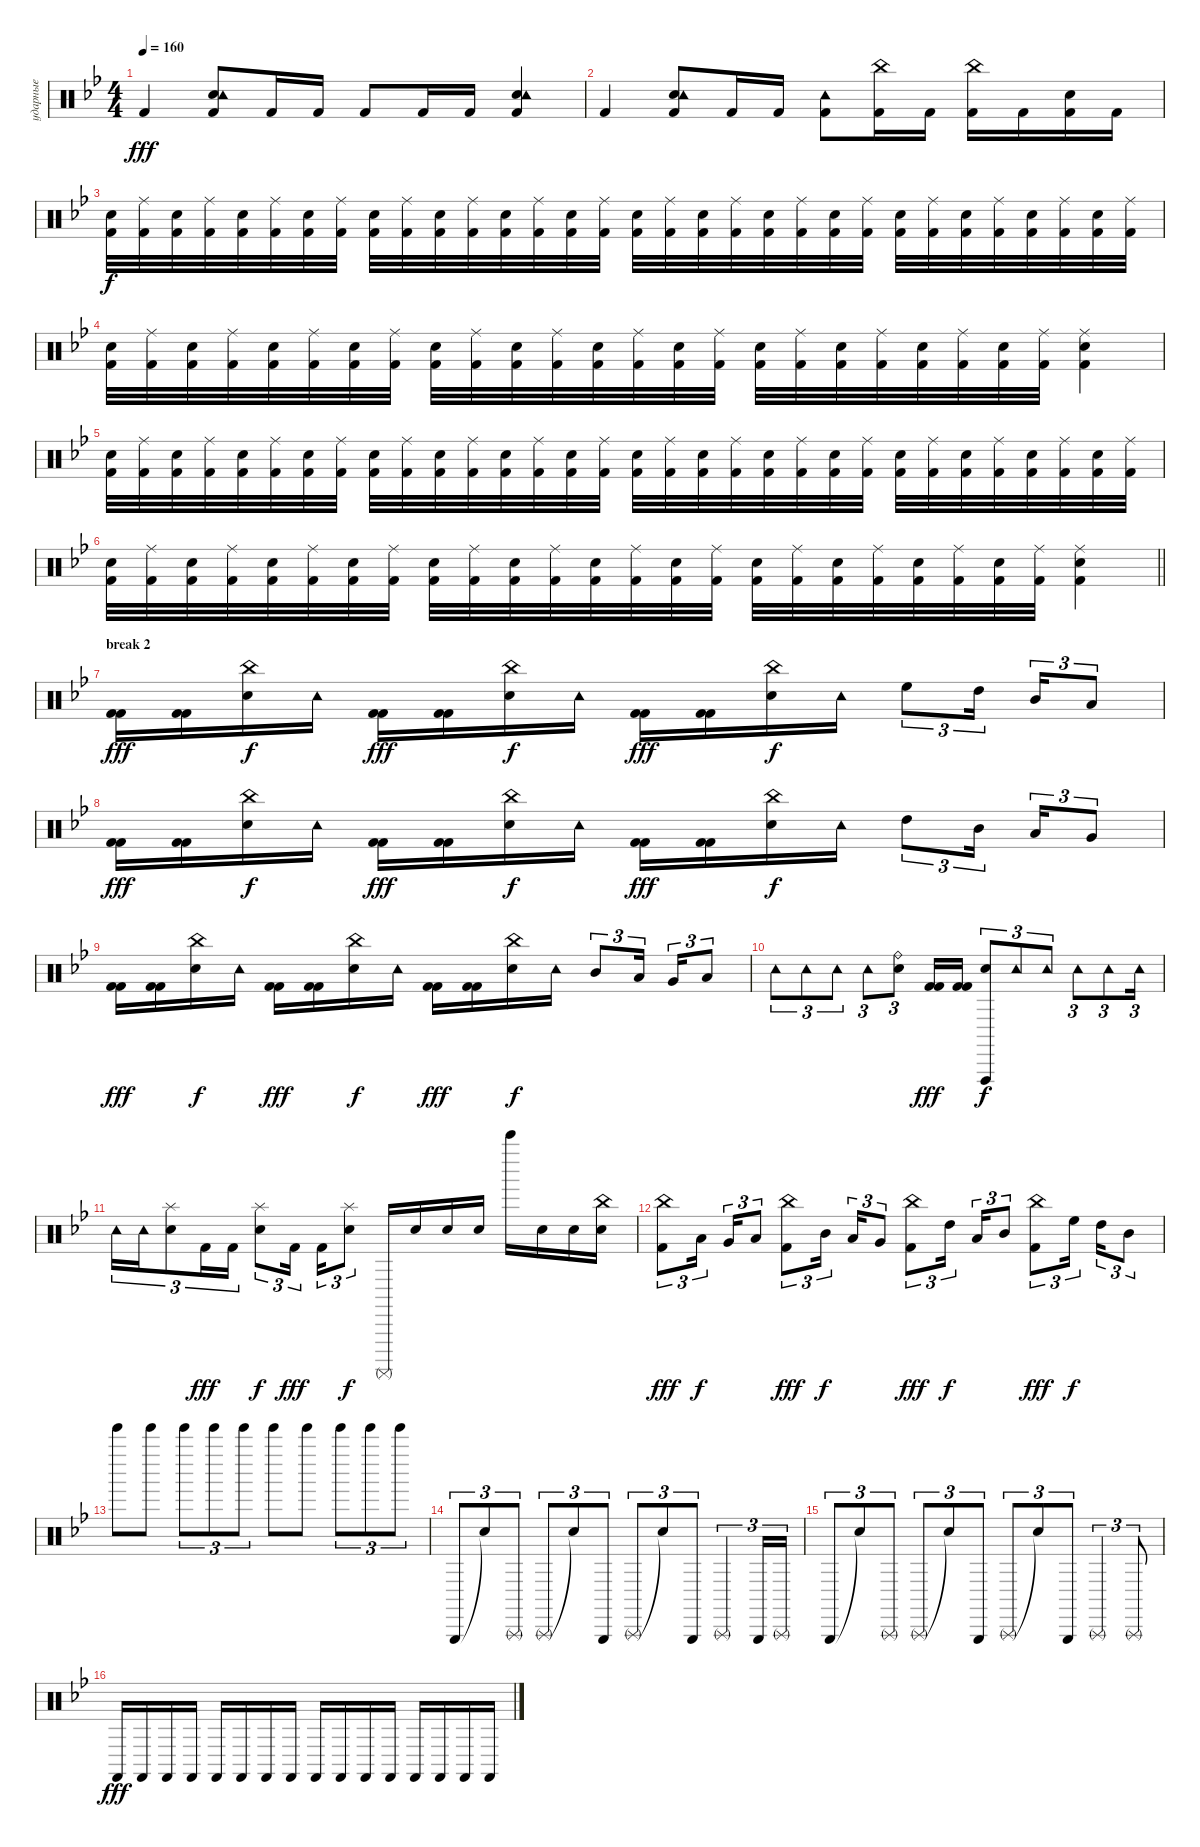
\track ("ударные" "ударные") {instrument percussion}
\staff {score}
\articulation defaults
\ts (4 4)
\tempo 160
\clef neutral
\ks gminor "Kick (hit) 2".4{dy fff}
("Electric Snare (hit)" "Tambourine (hit)" "Kick (hit) 2").8 "Kick (hit) 2".16 "Kick (hit) 2".16 "Kick (hit) 2".8 "Kick (hit) 2".16 "Kick (hit) 2".16 ("Electric Snare (hit)" "Tambourine (hit)" "Kick (hit) 2").4 |
"Kick (hit) 2".4 ("Electric Snare (hit)" "Tambourine (hit)" "Kick (hit) 2").8 "Kick (hit) 2".16 "Kick (hit) 2".16 ("Tambourine (hit)" "Kick (hit) 2").8 ("China (hit)" "Kick (hit) 2").16 "Kick (hit) 2".16 ("China (hit)" "Kick (hit) 2").16 "Kick (hit) 2".16 ("Electric Snare (hit)" "Kick (hit) 2").16 "Kick (hit) 2".16 |
("Kick (hit) 2" "Electric Snare (hit)").32{dy f} ("Kick (hit) 2" "Ride (middle)").32 ("Kick (hit) 2" "Electric Snare (hit)").32 ("Kick (hit) 2" "Ride (middle)").32 ("Kick (hit) 2" "Electric Snare (hit)").32 ("Kick (hit) 2" "Ride (middle)").32 ("Kick (hit) 2" "Electric Snare (hit)").32 ("Kick (hit) 2" "Ride (middle)").32 ("Kick (hit) 2" "Electric Snare (hit)").32 ("Kick (hit) 2" "Ride (middle)").32 ("Kick (hit) 2" "Electric Snare (hit)").32 ("Kick (hit) 2" "Ride (middle)").32 ("Kick (hit) 2" "Electric Snare (hit)").32 ("Kick (hit) 2" "Ride (middle)").32 ("Kick (hit) 2" "Electric Snare (hit)").32 ("Kick (hit) 2" "Ride (middle)").32 ("Kick (hit) 2" "Electric Snare (hit)").32 ("Kick (hit) 2" "Ride (middle)").32 ("Kick (hit) 2" "Electric Snare (hit)").32 ("Kick (hit) 2" "Ride (middle)").32 ("Kick (hit) 2" "Electric Snare (hit)").32 ("Kick (hit) 2" "Ride (middle)").32 ("Kick (hit) 2" "Electric Snare (hit)").32 ("Kick (hit) 2" "Ride (middle)").32 ("Kick (hit) 2" "Electric Snare (hit)").32 ("Kick (hit) 2" "Ride (middle)").32 ("Kick (hit) 2" "Electric Snare (hit)").32 ("Kick (hit) 2" "Ride (middle)").32 ("Kick (hit) 2" "Electric Snare (hit)").32 ("Kick (hit) 2" "Ride (middle)").32 ("Kick (hit) 2" "Electric Snare (hit)").32 ("Kick (hit) 2" "Ride (middle)").32 |
("Kick (hit) 2" "Electric Snare (hit)").32 ("Kick (hit) 2" "Ride (middle)").32 ("Kick (hit) 2" "Electric Snare (hit)").32 ("Kick (hit) 2" "Ride (middle)").32 ("Kick (hit) 2" "Electric Snare (hit)").32 ("Kick (hit) 2" "Ride (middle)").32 ("Kick (hit) 2" "Electric Snare (hit)").32 ("Kick (hit) 2" "Ride (middle)").32 ("Kick (hit) 2" "Electric Snare (hit)").32 ("Kick (hit) 2" "Ride (middle)").32 ("Kick (hit) 2" "Electric Snare (hit)").32 ("Kick (hit) 2" "Ride (middle)").32 ("Kick (hit) 2" "Electric Snare (hit)").32 ("Kick (hit) 2" "Ride (middle)").32 ("Kick (hit) 2" "Electric Snare (hit)").32 ("Kick (hit) 2" "Ride (middle)").32 ("Kick (hit) 2" "Electric Snare (hit)").32 ("Kick (hit) 2" "Ride (middle)").32 ("Kick (hit) 2" "Electric Snare (hit)").32 ("Kick (hit) 2" "Ride (middle)").32 ("Kick (hit) 2" "Electric Snare (hit)").32 ("Kick (hit) 2" "Ride (middle)").32 ("Kick (hit) 2" "Electric Snare (hit)").32 ("Kick (hit) 2" "Ride (middle)").32 ("Kick (hit) 2" "Electric Snare (hit)" "Ride (middle)").4 |
("Kick (hit) 2" "Electric Snare (hit)").32 ("Kick (hit) 2" "Ride (middle)").32 ("Kick (hit) 2" "Electric Snare (hit)").32 ("Kick (hit) 2" "Ride (middle)").32 ("Kick (hit) 2" "Electric Snare (hit)").32 ("Kick (hit) 2" "Ride (middle)").32 ("Kick (hit) 2" "Electric Snare (hit)").32 ("Kick (hit) 2" "Ride (middle)").32 ("Kick (hit) 2" "Electric Snare (hit)").32 ("Kick (hit) 2" "Ride (middle)").32 ("Kick (hit) 2" "Electric Snare (hit)").32 ("Kick (hit) 2" "Ride (middle)").32 ("Kick (hit) 2" "Electric Snare (hit)").32 ("Kick (hit) 2" "Ride (middle)").32 ("Kick (hit) 2" "Electric Snare (hit)").32 ("Kick (hit) 2" "Ride (middle)").32 ("Kick (hit) 2" "Electric Snare (hit)").32 ("Kick (hit) 2" "Ride (middle)").32 ("Kick (hit) 2" "Electric Snare (hit)").32 ("Kick (hit) 2" "Ride (middle)").32 ("Kick (hit) 2" "Electric Snare (hit)").32 ("Kick (hit) 2" "Ride (middle)").32 ("Kick (hit) 2" "Electric Snare (hit)").32 ("Kick (hit) 2" "Ride (middle)").32 ("Kick (hit) 2" "Electric Snare (hit)").32 ("Kick (hit) 2" "Ride (middle)").32 ("Kick (hit) 2" "Electric Snare (hit)").32 ("Kick (hit) 2" "Ride (middle)").32 ("Kick (hit) 2" "Electric Snare (hit)").32 ("Kick (hit) 2" "Ride (middle)").32 ("Kick (hit) 2" "Electric Snare (hit)").32 ("Kick (hit) 2" "Ride (middle)").32 |
\barLineRight lightlight
("Kick (hit) 2" "Electric Snare (hit)").32 ("Kick (hit) 2" "Ride (middle)").32 ("Kick (hit) 2" "Electric Snare (hit)").32 ("Kick (hit) 2" "Ride (middle)").32 ("Kick (hit) 2" "Electric Snare (hit)").32 ("Kick (hit) 2" "Ride (middle)").32 ("Kick (hit) 2" "Electric Snare (hit)").32 ("Kick (hit) 2" "Ride (middle)").32 ("Kick (hit) 2" "Electric Snare (hit)").32 ("Kick (hit) 2" "Ride (middle)").32 ("Kick (hit) 2" "Electric Snare (hit)").32 ("Kick (hit) 2" "Ride (middle)").32 ("Kick (hit) 2" "Electric Snare (hit)").32 ("Kick (hit) 2" "Ride (middle)").32 ("Kick (hit) 2" "Electric Snare (hit)").32 ("Kick (hit) 2" "Ride (middle)").32 ("Kick (hit) 2" "Electric Snare (hit)").32 ("Kick (hit) 2" "Ride (middle)").32 ("Kick (hit) 2" "Electric Snare (hit)").32 ("Kick (hit) 2" "Ride (middle)").32 ("Kick (hit) 2" "Electric Snare (hit)").32 ("Kick (hit) 2" "Ride (middle)").32 ("Kick (hit) 2" "Electric Snare (hit)").32 ("Kick (hit) 2" "Ride (middle)").32 ("Kick (hit) 2" "Electric Snare (hit)" "Ride (middle)").4 |
\section ("" "break 2")
("Kick (hit) 2" "Kick (hit) 2").16{dy fff} ("Kick (hit) 2" "Kick (hit) 2").16 ("China (hit)" "Electric Snare (hit)").16{dy f} "Tambourine (hit)".16 ("Kick (hit) 2" "Kick (hit) 2").16{dy fff} ("Kick (hit) 2" "Kick (hit) 2").16 ("China (hit)" "Electric Snare (hit)").16{dy f} "Tambourine (hit)".16 ("Kick (hit) 2" "Kick (hit) 2").16{dy fff} ("Kick (hit) 2" "Kick (hit) 2").16 ("China (hit)" "Electric Snare (hit)").16{dy f} "Tambourine (hit)".16 "High Floor Tom (hit)".8{tu (3 2)} "High Tom (hit)".16{tu (3 2) beam splitsecondary} "Mid Tom (hit)".16{tu (3 2)} "Low Tom (hit)".8{tu (3 2)} |
("Kick (hit) 2" "Kick (hit) 2").16{dy fff} ("Kick (hit) 2" "Kick (hit) 2").16 ("China (hit)" "Electric Snare (hit)").16{dy f} "Tambourine (hit)".16 ("Kick (hit) 2" "Kick (hit) 2").16{dy fff} ("Kick (hit) 2" "Kick (hit) 2").16 ("China (hit)" "Electric Snare (hit)").16{dy f} "Tambourine (hit)".16 ("Kick (hit) 2" "Kick (hit) 2").16{dy fff} ("Kick (hit) 2" "Kick (hit) 2").16 ("China (hit)" "Electric Snare (hit)").16{dy f} "Tambourine (hit)".16 "High Tom (hit)".8{tu (3 2)} "Mid Tom (hit)".16{tu (3 2) beam splitsecondary} "Low Tom (hit)".16{tu (3 2)} "Very Low Tom (hit)".8{tu (3 2)} |
("Kick (hit) 2" "Kick (hit) 2").16{dy fff} ("Kick (hit) 2" "Kick (hit) 2").16 ("China (hit)" "Electric Snare (hit)").16{dy f} "Tambourine (hit)".16 ("Kick (hit) 2" "Kick (hit) 2").16{dy fff} ("Kick (hit) 2" "Kick (hit) 2").16 ("China (hit)" "Electric Snare (hit)").16{dy f} "Tambourine (hit)".16 ("Kick (hit) 2" "Kick (hit) 2").16{dy fff} ("Kick (hit) 2" "Kick (hit) 2").16 ("China (hit)" "Electric Snare (hit)").16{dy f} "Tambourine (hit)".16 "Mid Tom (hit)".8{tu (3 2)} "Low Tom (hit)".16{tu (3 2) beam splitsecondary} "Very Low Tom (hit)".16{tu (3 2)} "Low Floor Tom (hit)".8{tu (3 2)} |
"Tambourine (hit)".8{tu (3 2)} "Tambourine (hit)".8{tu (3 2)} "Tambourine (hit)".8{tu (3 2)} "Tambourine (hit)".8{tu (3 2)} ("Ride (bell)" "Electric Snare (hit)").8{tu (3 2)} ("Kick (hit) 2" "Kick (hit) 2").16{dy fff} ("Kick (hit) 2" "Kick (hit) 2").16 ("Vibraslap (hit)" "Electric Snare (hit)").8{tu (3 2) dy f} "Tambourine (hit)".8{tu (3 2)} "Tambourine (hit)".8{tu (3 2)} "Tambourine (hit)".8{tu (3 2)} "Tambourine (hit)".8{tu (3 2)} "Tambourine (hit)".16{tu (3 2)} |
"Tambourine (hit)".16{tu (3 2)} "Tambourine (hit)".16{tu (3 2)} ("Splash (hit)" "Electric Snare (hit)").8{tu (3 2)} "Kick (hit) 2".16{tu (3 2) dy fff} "Kick (hit) 2".16{tu (3 2)} ("Splash (hit)" "Electric Snare (hit)").8{tu (3 2) dy f} "Kick (hit) 2".16{tu (3 2) dy fff beam splitsecondary} "Kick (hit) 2".16{tu (3 2)} ("Splash (hit)" "Electric Snare (hit)").8{tu (3 2) dy f} "Surdo (mute)".16 "Electric Snare (hit)".16 "Electric Snare (hit)".16 "Electric Snare (hit)".16 "Bell Tree (hit)".16 "Electric Snare (hit)".16 "Electric Snare (hit)".16 ("China (hit)" "Electric Snare (hit)").16 |
("China (hit)" "Kick (hit) 2").8{tu (3 2) dy fff} "Low Tom (hit)".16{tu (3 2) dy f beam splitsecondary} "Very Low Tom (hit)".16{tu (3 2)} "Low Floor Tom (hit)".8{tu (3 2)} ("China (hit)" "Kick (hit) 2").8{tu (3 2) dy fff} "Mid Tom (hit)".16{tu (3 2) dy f beam splitsecondary} "Low Tom (hit)".16{tu (3 2)} "Very Low Tom (hit)".8{tu (3 2)} ("China (hit)" "Kick (hit) 2").8{tu (3 2) dy fff} "High Tom (hit)".16{tu (3 2) dy f beam splitsecondary} "Low Tom (hit)".16{tu (3 2)} "Mid Tom (hit)".8{tu (3 2)} ("China (hit)" "Kick (hit) 2").8{tu (3 2) dy fff} "High Floor Tom (hit)".16{tu (3 2) dy f beam splitsecondary} "High Tom (hit)".16{tu (3 2)} "Mid Tom (hit)".8{tu (3 2)} |
"Tinkle Bell (hit)".8 "Tinkle Bell (hit)".8 "Tinkle Bell (hit)".8{tu (3 2)} "Tinkle Bell (hit)".8{tu (3 2)} "Tinkle Bell (hit)".8{tu (3 2)} "Tinkle Bell (hit)".8 "Tinkle Bell (hit)".8 "Tinkle Bell (hit)".8{tu (3 2)} "Tinkle Bell (hit)".8{tu (3 2)} "Tinkle Bell (hit)".8{tu (3 2)} |
"Triangle (hit)".8{tu (3 2)} "Snare (hit)"{t}.8{tu (3 2)} "Triangle (rnute)".8{tu (3 2)} "Triangle (rnute)".8{tu (3 2)} "Snare (hit)"{t}.8{tu (3 2)} "Triangle (hit)".8{tu (3 2)} "Triangle (rnute)".8{tu (3 2)} "Snare (hit)"{t}.8{tu (3 2)} "Triangle (hit)".8{tu (3 2)} "Triangle (rnute)".4{tu (3 2)} "Triangle (hit)".16{tu (3 2)} "Triangle (rnute)".16{tu (3 2)} |
"Triangle (hit)".8{tu (3 2)} "Snare (hit)"{t}.8{tu (3 2)} "Triangle (rnute)".8{tu (3 2)} "Triangle (rnute)".8{tu (3 2)} "Snare (hit)"{t}.8{tu (3 2)} "Triangle (hit)".8{tu (3 2)} "Triangle (rnute)".8{tu (3 2)} "Snare (hit)"{t}.8{tu (3 2)} "Triangle (hit)".8{tu (3 2)} "Triangle (rnute)".4{tu (3 2)} "Triangle (rnute)".8{tu (3 2)} |
"Castanets (hit)".16{dy fff} "Castanets (hit)".16 "Castanets (hit)".16 "Castanets (hit)".16 "Castanets (hit)".16 "Castanets (hit)".16 "Castanets (hit)".16 "Castanets (hit)".16 "Castanets (hit)".16 "Castanets (hit)".16 "Castanets (hit)".16 "Castanets (hit)".16 "Castanets (hit)".16 "Castanets (hit)".16 "Castanets (hit)".16 "Castanets (hit)".16
